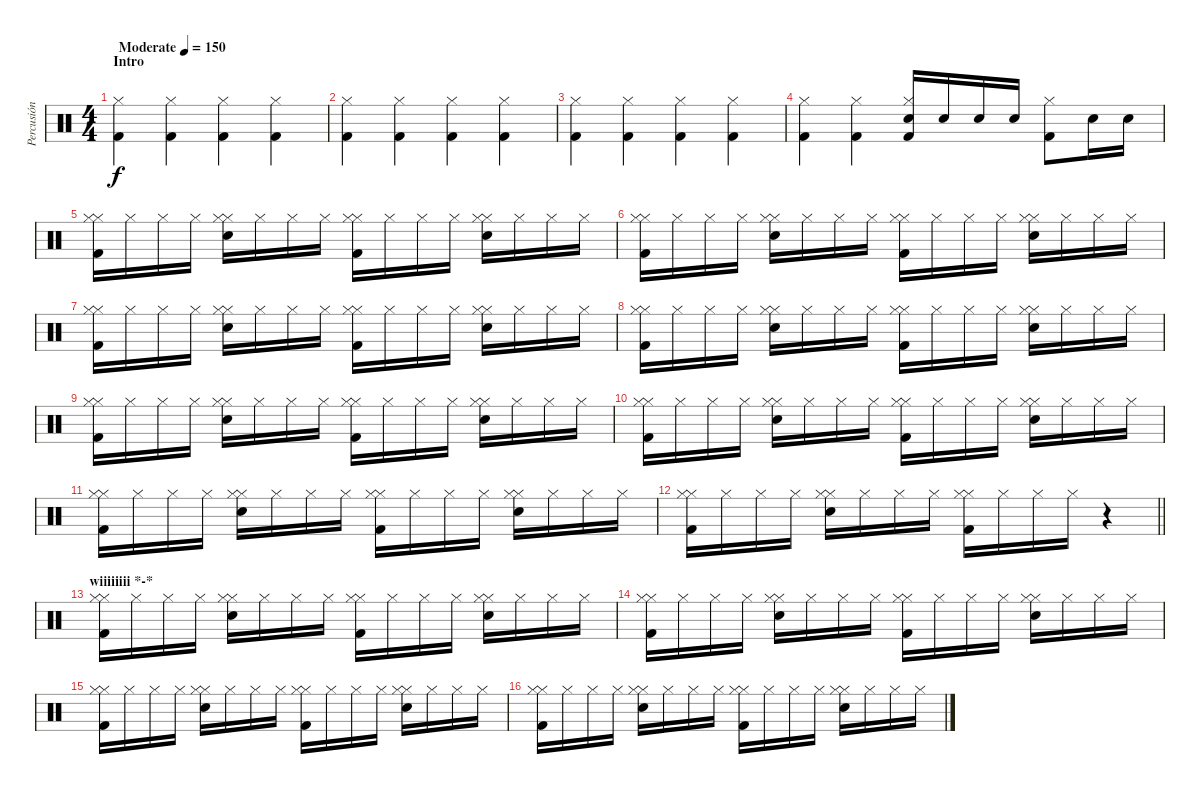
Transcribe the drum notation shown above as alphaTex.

\track ("Percusión" "Percusión") {instrument percussion}
\staff {score}
\articulation defaults
\ts (4 4)
\section ("" "Intro")
\tempo (150 "Moderate")
\clef neutral
\ks c
("Kick (hit) 2" "Hi-Hat (closed)").4{dy f} ("Kick (hit) 2" "Hi-Hat (closed)").4 ("Kick (hit) 2" "Hi-Hat (closed)").4 ("Kick (hit) 2" "Hi-Hat (closed)").4 |
("Kick (hit) 2" "Hi-Hat (closed)").4 ("Kick (hit) 2" "Hi-Hat (closed)").4 ("Kick (hit) 2" "Hi-Hat (closed)").4 ("Kick (hit) 2" "Hi-Hat (closed)").4 |
("Kick (hit) 2" "Hi-Hat (closed)").4 ("Kick (hit) 2" "Hi-Hat (closed)").4 ("Kick (hit) 2" "Hi-Hat (closed)").4 ("Kick (hit) 2" "Hi-Hat (closed)").4 |
("Kick (hit) 2" "Hi-Hat (closed)").4 ("Kick (hit) 2" "Hi-Hat (closed)").4 ("Kick (hit) 2" "Electric Snare (hit)" "Hi-Hat (closed)").16 "Electric Snare (hit)".16 "Electric Snare (hit)".16 "Electric Snare (hit)".16 ("Kick (hit) 2" "Hi-Hat (closed)").8 "Electric Snare (hit)".16 "Electric Snare (hit)".16 |
("Kick (hit) 2" "Hi-Hat (closed)" "Hi-Hat (closed)").16 "Hi-Hat (closed)".16 "Hi-Hat (closed)".16 "Hi-Hat (closed)".16 ("Hi-Hat (closed)" "Electric Snare (hit)" "Hi-Hat (closed)").16 "Hi-Hat (closed)".16 "Hi-Hat (closed)".16 "Hi-Hat (closed)".16 ("Kick (hit) 2" "Hi-Hat (closed)" "Hi-Hat (closed)").16 "Hi-Hat (closed)".16 "Hi-Hat (closed)".16 "Hi-Hat (closed)".16 ("Hi-Hat (closed)" "Electric Snare (hit)" "Hi-Hat (closed)").16 "Hi-Hat (closed)".16 "Hi-Hat (closed)".16 "Hi-Hat (closed)".16 |
("Kick (hit) 2" "Hi-Hat (closed)" "Hi-Hat (closed)").16 "Hi-Hat (closed)".16 "Hi-Hat (closed)".16 "Hi-Hat (closed)".16 ("Hi-Hat (closed)" "Electric Snare (hit)" "Hi-Hat (closed)").16 "Hi-Hat (closed)".16 "Hi-Hat (closed)".16 "Hi-Hat (closed)".16 ("Kick (hit) 2" "Hi-Hat (closed)" "Hi-Hat (closed)").16 "Hi-Hat (closed)".16 "Hi-Hat (closed)".16 "Hi-Hat (closed)".16 ("Hi-Hat (closed)" "Electric Snare (hit)" "Hi-Hat (closed)").16 "Hi-Hat (closed)".16 "Hi-Hat (closed)".16 "Hi-Hat (closed)".16 |
("Kick (hit) 2" "Hi-Hat (closed)" "Hi-Hat (closed)").16 "Hi-Hat (closed)".16 "Hi-Hat (closed)".16 "Hi-Hat (closed)".16 ("Hi-Hat (closed)" "Electric Snare (hit)" "Hi-Hat (closed)").16 "Hi-Hat (closed)".16 "Hi-Hat (closed)".16 "Hi-Hat (closed)".16 ("Kick (hit) 2" "Hi-Hat (closed)" "Hi-Hat (closed)").16 "Hi-Hat (closed)".16 "Hi-Hat (closed)".16 "Hi-Hat (closed)".16 ("Hi-Hat (closed)" "Electric Snare (hit)" "Hi-Hat (closed)").16 "Hi-Hat (closed)".16 "Hi-Hat (closed)".16 "Hi-Hat (closed)".16 |
("Kick (hit) 2" "Hi-Hat (closed)" "Hi-Hat (closed)").16 "Hi-Hat (closed)".16 "Hi-Hat (closed)".16 "Hi-Hat (closed)".16 ("Hi-Hat (closed)" "Electric Snare (hit)" "Hi-Hat (closed)").16 "Hi-Hat (closed)".16 "Hi-Hat (closed)".16 "Hi-Hat (closed)".16 ("Kick (hit) 2" "Hi-Hat (closed)" "Hi-Hat (closed)").16 "Hi-Hat (closed)".16 "Hi-Hat (closed)".16 "Hi-Hat (closed)".16 ("Hi-Hat (closed)" "Electric Snare (hit)" "Hi-Hat (closed)").16 "Hi-Hat (closed)".16 "Hi-Hat (closed)".16 "Hi-Hat (closed)".16 |
("Kick (hit) 2" "Hi-Hat (closed)" "Hi-Hat (closed)").16 "Hi-Hat (closed)".16 "Hi-Hat (closed)".16 "Hi-Hat (closed)".16 ("Hi-Hat (closed)" "Electric Snare (hit)" "Hi-Hat (closed)").16 "Hi-Hat (closed)".16 "Hi-Hat (closed)".16 "Hi-Hat (closed)".16 ("Kick (hit) 2" "Hi-Hat (closed)" "Hi-Hat (closed)").16 "Hi-Hat (closed)".16 "Hi-Hat (closed)".16 "Hi-Hat (closed)".16 ("Hi-Hat (closed)" "Electric Snare (hit)" "Hi-Hat (closed)").16 "Hi-Hat (closed)".16 "Hi-Hat (closed)".16 "Hi-Hat (closed)".16 |
("Kick (hit) 2" "Hi-Hat (closed)" "Hi-Hat (closed)").16 "Hi-Hat (closed)".16 "Hi-Hat (closed)".16 "Hi-Hat (closed)".16 ("Hi-Hat (closed)" "Electric Snare (hit)" "Hi-Hat (closed)").16 "Hi-Hat (closed)".16 "Hi-Hat (closed)".16 "Hi-Hat (closed)".16 ("Kick (hit) 2" "Hi-Hat (closed)" "Hi-Hat (closed)").16 "Hi-Hat (closed)".16 "Hi-Hat (closed)".16 "Hi-Hat (closed)".16 ("Hi-Hat (closed)" "Electric Snare (hit)" "Hi-Hat (closed)").16 "Hi-Hat (closed)".16 "Hi-Hat (closed)".16 "Hi-Hat (closed)".16 |
("Kick (hit) 2" "Hi-Hat (closed)" "Hi-Hat (closed)").16 "Hi-Hat (closed)".16 "Hi-Hat (closed)".16 "Hi-Hat (closed)".16 ("Hi-Hat (closed)" "Electric Snare (hit)" "Hi-Hat (closed)").16 "Hi-Hat (closed)".16 "Hi-Hat (closed)".16 "Hi-Hat (closed)".16 ("Kick (hit) 2" "Hi-Hat (closed)" "Hi-Hat (closed)").16 "Hi-Hat (closed)".16 "Hi-Hat (closed)".16 "Hi-Hat (closed)".16 ("Hi-Hat (closed)" "Electric Snare (hit)" "Hi-Hat (closed)").16 "Hi-Hat (closed)".16 "Hi-Hat (closed)".16 "Hi-Hat (closed)".16 |
\barLineRight lightlight
("Kick (hit) 2" "Hi-Hat (closed)" "Hi-Hat (closed)").16 "Hi-Hat (closed)".16 "Hi-Hat (closed)".16 "Hi-Hat (closed)".16 ("Hi-Hat (closed)" "Electric Snare (hit)" "Hi-Hat (closed)").16 "Hi-Hat (closed)".16 "Hi-Hat (closed)".16 "Hi-Hat (closed)".16 ("Kick (hit) 2" "Hi-Hat (closed)" "Hi-Hat (closed)").16 "Hi-Hat (closed)".16 "Hi-Hat (closed)".16 "Hi-Hat (closed)".16 r.4 |
\section ("" "wiiiiiiii *-*")
("Kick (hit) 2" "Hi-Hat (closed)" "Hi-Hat (closed)").16 "Hi-Hat (closed)".16 "Hi-Hat (closed)".16 "Hi-Hat (closed)".16 ("Hi-Hat (closed)" "Electric Snare (hit)" "Hi-Hat (closed)").16 "Hi-Hat (closed)".16 "Hi-Hat (closed)".16 "Hi-Hat (closed)".16 ("Kick (hit) 2" "Hi-Hat (closed)" "Hi-Hat (closed)").16 "Hi-Hat (closed)".16 "Hi-Hat (closed)".16 "Hi-Hat (closed)".16 ("Hi-Hat (closed)" "Electric Snare (hit)" "Hi-Hat (closed)").16 "Hi-Hat (closed)".16 "Hi-Hat (closed)".16 "Hi-Hat (closed)".16 |
("Kick (hit) 2" "Hi-Hat (closed)" "Hi-Hat (closed)").16 "Hi-Hat (closed)".16 "Hi-Hat (closed)".16 "Hi-Hat (closed)".16 ("Hi-Hat (closed)" "Electric Snare (hit)" "Hi-Hat (closed)").16 "Hi-Hat (closed)".16 "Hi-Hat (closed)".16 "Hi-Hat (closed)".16 ("Kick (hit) 2" "Hi-Hat (closed)" "Hi-Hat (closed)").16 "Hi-Hat (closed)".16 "Hi-Hat (closed)".16 "Hi-Hat (closed)".16 ("Hi-Hat (closed)" "Electric Snare (hit)" "Hi-Hat (closed)").16 "Hi-Hat (closed)".16 "Hi-Hat (closed)".16 "Hi-Hat (closed)".16 |
("Kick (hit) 2" "Hi-Hat (closed)" "Hi-Hat (closed)").16 "Hi-Hat (closed)".16 "Hi-Hat (closed)".16 "Hi-Hat (closed)".16 ("Hi-Hat (closed)" "Electric Snare (hit)" "Hi-Hat (closed)").16 "Hi-Hat (closed)".16 "Hi-Hat (closed)".16 "Hi-Hat (closed)".16 ("Kick (hit) 2" "Hi-Hat (closed)" "Hi-Hat (closed)").16 "Hi-Hat (closed)".16 "Hi-Hat (closed)".16 "Hi-Hat (closed)".16 ("Hi-Hat (closed)" "Electric Snare (hit)" "Hi-Hat (closed)").16 "Hi-Hat (closed)".16 "Hi-Hat (closed)".16 "Hi-Hat (closed)".16 |
("Kick (hit) 2" "Hi-Hat (closed)" "Hi-Hat (closed)").16 "Hi-Hat (closed)".16 "Hi-Hat (closed)".16 "Hi-Hat (closed)".16 ("Hi-Hat (closed)" "Electric Snare (hit)" "Hi-Hat (closed)").16 "Hi-Hat (closed)".16 "Hi-Hat (closed)".16 "Hi-Hat (closed)".16 ("Kick (hit) 2" "Hi-Hat (closed)" "Hi-Hat (closed)").16 "Hi-Hat (closed)".16 "Hi-Hat (closed)".16 "Hi-Hat (closed)".16 ("Hi-Hat (closed)" "Electric Snare (hit)" "Hi-Hat (closed)").16 "Hi-Hat (closed)".16 "Hi-Hat (closed)".16 "Hi-Hat (closed)".16
